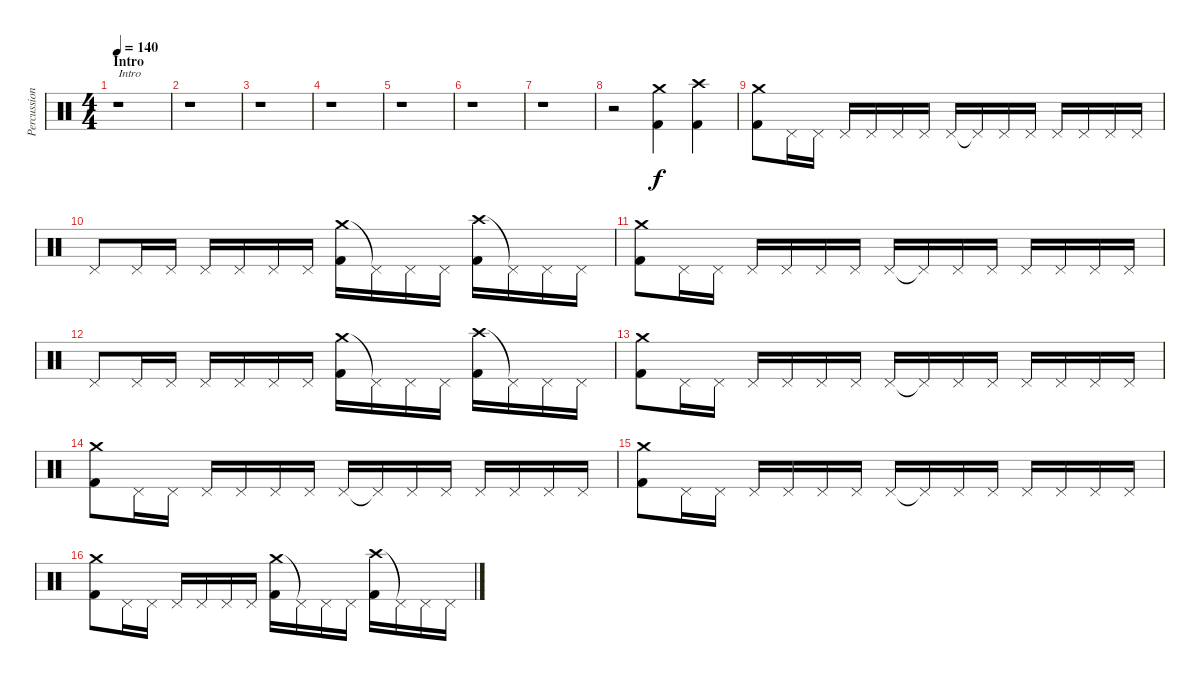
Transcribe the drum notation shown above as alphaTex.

\track ("Percussion" "Percussion") {instrument percussion}
\staff {score}
\articulation defaults
\ts (4 4)
\section ("" "Intro")
\tempo 140
\clef neutral
\ks c
r.1{txt "Intro" dy f} |
r.1 |
r.1 |
r.1 |
r.1 |
r.1 |
r.1 |
r.2 ("Crash medium (hit)" "Kick (hit) 2").4 ("Crash high (hit)" "Kick (hit) 2").4 |
("Crash medium (hit)" "Kick (hit) 2").8 "Pedal Hi-Hat (hit)".16 "Pedal Hi-Hat (hit)".16 "Pedal Hi-Hat (hit)".16 "Pedal Hi-Hat (hit)".16 "Pedal Hi-Hat (hit)".16 "Pedal Hi-Hat (hit)".16 "Pedal Hi-Hat (hit)".16 "Pedal Hi-Hat (hit)"{t}.16 "Pedal Hi-Hat (hit)".16 "Pedal Hi-Hat (hit)".16 "Pedal Hi-Hat (hit)".16 "Pedal Hi-Hat (hit)".16 "Pedal Hi-Hat (hit)".16 "Pedal Hi-Hat (hit)".16 |
"Pedal Hi-Hat (hit)".8 "Pedal Hi-Hat (hit)".16 "Pedal Hi-Hat (hit)".16 "Pedal Hi-Hat (hit)".16 "Pedal Hi-Hat (hit)".16 "Pedal Hi-Hat (hit)".16 "Pedal Hi-Hat (hit)".16 ("Crash medium (hit)" "Kick (hit) 2").16 "Pedal Hi-Hat (hit)"{t}.16 "Pedal Hi-Hat (hit)".16 "Pedal Hi-Hat (hit)".16 ("Crash high (hit)" "Kick (hit) 2").16 "Pedal Hi-Hat (hit)"{t}.16 "Pedal Hi-Hat (hit)".16 "Pedal Hi-Hat (hit)".16 |
("Crash medium (hit)" "Kick (hit) 2").8 "Pedal Hi-Hat (hit)".16 "Pedal Hi-Hat (hit)".16 "Pedal Hi-Hat (hit)".16 "Pedal Hi-Hat (hit)".16 "Pedal Hi-Hat (hit)".16 "Pedal Hi-Hat (hit)".16 "Pedal Hi-Hat (hit)".16 "Pedal Hi-Hat (hit)"{t}.16 "Pedal Hi-Hat (hit)".16 "Pedal Hi-Hat (hit)".16 "Pedal Hi-Hat (hit)".16 "Pedal Hi-Hat (hit)".16 "Pedal Hi-Hat (hit)".16 "Pedal Hi-Hat (hit)".16 |
"Pedal Hi-Hat (hit)".8 "Pedal Hi-Hat (hit)".16 "Pedal Hi-Hat (hit)".16 "Pedal Hi-Hat (hit)".16 "Pedal Hi-Hat (hit)".16 "Pedal Hi-Hat (hit)".16 "Pedal Hi-Hat (hit)".16 ("Crash medium (hit)" "Kick (hit) 2").16 "Pedal Hi-Hat (hit)"{t}.16 "Pedal Hi-Hat (hit)".16 "Pedal Hi-Hat (hit)".16 ("Crash high (hit)" "Kick (hit) 2").16 "Pedal Hi-Hat (hit)"{t}.16 "Pedal Hi-Hat (hit)".16 "Pedal Hi-Hat (hit)".16 |
("Crash medium (hit)" "Kick (hit) 2").8 "Pedal Hi-Hat (hit)".16 "Pedal Hi-Hat (hit)".16 "Pedal Hi-Hat (hit)".16 "Pedal Hi-Hat (hit)".16 "Pedal Hi-Hat (hit)".16 "Pedal Hi-Hat (hit)".16 "Pedal Hi-Hat (hit)".16 "Pedal Hi-Hat (hit)"{t}.16 "Pedal Hi-Hat (hit)".16 "Pedal Hi-Hat (hit)".16 "Pedal Hi-Hat (hit)".16 "Pedal Hi-Hat (hit)".16 "Pedal Hi-Hat (hit)".16 "Pedal Hi-Hat (hit)".16 |
("Crash medium (hit)" "Kick (hit) 2").8 "Pedal Hi-Hat (hit)".16 "Pedal Hi-Hat (hit)".16 "Pedal Hi-Hat (hit)".16 "Pedal Hi-Hat (hit)".16 "Pedal Hi-Hat (hit)".16 "Pedal Hi-Hat (hit)".16 "Pedal Hi-Hat (hit)".16 "Pedal Hi-Hat (hit)"{t}.16 "Pedal Hi-Hat (hit)".16 "Pedal Hi-Hat (hit)".16 "Pedal Hi-Hat (hit)".16 "Pedal Hi-Hat (hit)".16 "Pedal Hi-Hat (hit)".16 "Pedal Hi-Hat (hit)".16 |
("Crash medium (hit)" "Kick (hit) 2").8 "Pedal Hi-Hat (hit)".16 "Pedal Hi-Hat (hit)".16 "Pedal Hi-Hat (hit)".16 "Pedal Hi-Hat (hit)".16 "Pedal Hi-Hat (hit)".16 "Pedal Hi-Hat (hit)".16 "Pedal Hi-Hat (hit)".16 "Pedal Hi-Hat (hit)"{t}.16 "Pedal Hi-Hat (hit)".16 "Pedal Hi-Hat (hit)".16 "Pedal Hi-Hat (hit)".16 "Pedal Hi-Hat (hit)".16 "Pedal Hi-Hat (hit)".16 "Pedal Hi-Hat (hit)".16 |
("Crash medium (hit)" "Kick (hit) 2").8 "Pedal Hi-Hat (hit)".16 "Pedal Hi-Hat (hit)".16 "Pedal Hi-Hat (hit)".16 "Pedal Hi-Hat (hit)".16 "Pedal Hi-Hat (hit)".16 "Pedal Hi-Hat (hit)".16 ("Crash medium (hit)" "Kick (hit) 2").16 "Pedal Hi-Hat (hit)"{t}.16 "Pedal Hi-Hat (hit)".16 "Pedal Hi-Hat (hit)".16 ("Crash high (hit)" "Kick (hit) 2").16 "Pedal Hi-Hat (hit)"{t}.16 "Pedal Hi-Hat (hit)".16 "Pedal Hi-Hat (hit)".16
